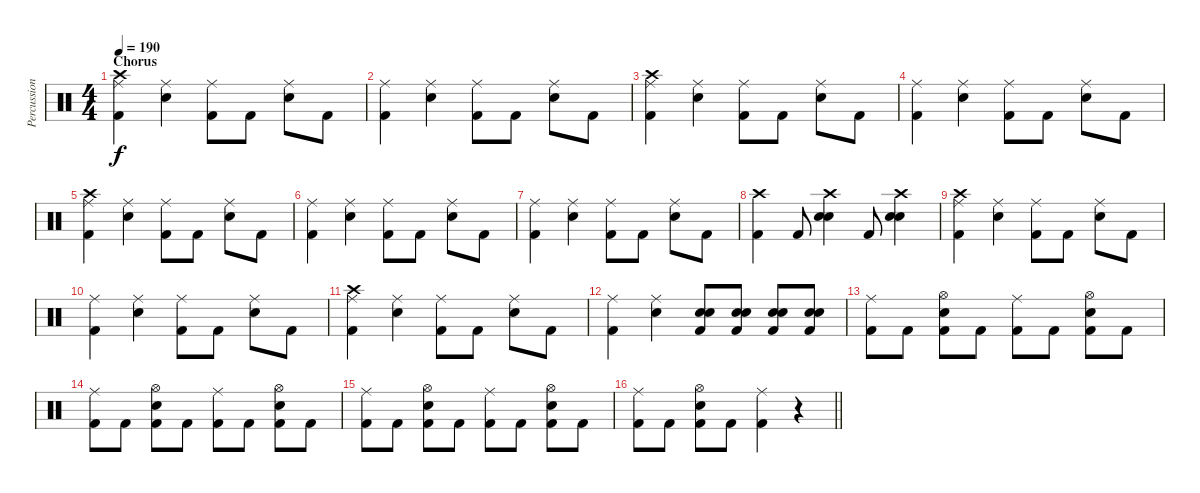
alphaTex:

\track ("Percussion" "Percussion") {instrument percussion}
\staff {score}
\articulation defaults
\ts (4 4)
\section ("" "Chorus")
\tempo 190
\clef neutral
\ks c
("Ride (middle)" "Kick (hit) 2" "Crash high (hit)").4{dy f} ("Ride (middle)" "Snare (hit) 2").4 ("Ride (middle)" "Kick (hit) 2").8 "Kick (hit) 2".8 ("Ride (middle)" "Snare (hit) 2").8 "Kick (hit) 2".8 |
("Ride (middle)" "Kick (hit) 2").4 ("Ride (middle)" "Snare (hit) 2").4 ("Ride (middle)" "Kick (hit) 2").8 "Kick (hit) 2".8 ("Ride (middle)" "Snare (hit) 2").8 "Kick (hit) 2".8 |
("Ride (middle)" "Kick (hit) 2" "Crash high (hit)").4 ("Ride (middle)" "Snare (hit) 2").4 ("Ride (middle)" "Kick (hit) 2").8 "Kick (hit) 2".8 ("Ride (middle)" "Snare (hit) 2").8 "Kick (hit) 2".8 |
("Ride (middle)" "Kick (hit) 2").4 ("Ride (middle)" "Snare (hit) 2").4 ("Ride (middle)" "Kick (hit) 2").8 "Kick (hit) 2".8 ("Ride (middle)" "Snare (hit) 2").8 "Kick (hit) 2".8 |
("Ride (middle)" "Kick (hit) 2" "Crash high (hit)").4 ("Ride (middle)" "Snare (hit) 2").4 ("Ride (middle)" "Kick (hit) 2").8 "Kick (hit) 2".8 ("Ride (middle)" "Snare (hit) 2").8 "Kick (hit) 2".8 |
("Ride (middle)" "Kick (hit) 2").4 ("Ride (middle)" "Snare (hit) 2").4 ("Ride (middle)" "Kick (hit) 2").8 "Kick (hit) 2".8 ("Ride (middle)" "Snare (hit) 2").8 "Kick (hit) 2".8 |
("Ride (middle)" "Kick (hit) 2").4 ("Ride (middle)" "Snare (hit) 2").4 ("Ride (middle)" "Kick (hit) 2").8 "Kick (hit) 2".8 ("Ride (middle)" "Snare (hit) 2").8 "Kick (hit) 2".8 |
("Kick (hit) 2" "Crash high (hit)").4 "Kick (hit) 2".8 ("Electric Snare (hit)" "Snare (hit) 2" "Crash high (hit)").4 "Kick (hit) 2".8 ("Electric Snare (hit)" "Snare (hit) 2" "Crash high (hit)").4 |
("Ride (middle)" "Kick (hit) 2" "Crash high (hit)").4 ("Ride (middle)" "Snare (hit) 2").4 ("Ride (middle)" "Kick (hit) 2").8 "Kick (hit) 2".8 ("Ride (middle)" "Snare (hit) 2").8 "Kick (hit) 2".8 |
("Ride (middle)" "Kick (hit) 2").4 ("Ride (middle)" "Snare (hit) 2").4 ("Ride (middle)" "Kick (hit) 2").8 "Kick (hit) 2".8 ("Ride (middle)" "Snare (hit) 2").8 "Kick (hit) 2".8 |
("Ride (middle)" "Kick (hit) 2" "Crash high (hit)").4 ("Ride (middle)" "Snare (hit) 2").4 ("Ride (middle)" "Kick (hit) 2").8 "Kick (hit) 2".8 ("Ride (middle)" "Snare (hit) 2").8 "Kick (hit) 2".8 |
("Ride (middle)" "Kick (hit) 2").4 ("Ride (middle)" "Snare (hit) 2").4 ("Electric Snare (hit)" "Snare (hit) 2" "Kick (hit) 2").8 ("Electric Snare (hit)" "Snare (hit) 2" "Kick (hit) 2").8 ("Electric Snare (hit)" "Snare (hit) 2" "Kick (hit) 2").8 ("Electric Snare (hit)" "Snare (hit) 2" "Kick (hit) 2").8 |
("Ride (middle)" "Kick (hit) 2").8 "Kick (hit) 2".8 ("Hi-Hat (open)" "Snare (hit) 2" "Kick (hit) 2").8 "Kick (hit) 2".8 ("Ride (middle)" "Kick (hit) 2").8 "Kick (hit) 2".8 ("Hi-Hat (open)" "Snare (hit) 2" "Kick (hit) 2").8 "Kick (hit) 2".8 |
("Ride (middle)" "Kick (hit) 2").8 "Kick (hit) 2".8 ("Hi-Hat (open)" "Snare (hit) 2" "Kick (hit) 2").8 "Kick (hit) 2".8 ("Ride (middle)" "Kick (hit) 2").8 "Kick (hit) 2".8 ("Hi-Hat (open)" "Snare (hit) 2" "Kick (hit) 2").8 "Kick (hit) 2".8 |
("Ride (middle)" "Kick (hit) 2").8 "Kick (hit) 2".8 ("Hi-Hat (open)" "Snare (hit) 2" "Kick (hit) 2").8 "Kick (hit) 2".8 ("Ride (middle)" "Kick (hit) 2").8 "Kick (hit) 2".8 ("Hi-Hat (open)" "Snare (hit) 2" "Kick (hit) 2").8 "Kick (hit) 2".8 |
\barLineRight lightlight
("Ride (middle)" "Kick (hit) 2").8 "Kick (hit) 2".8 ("Hi-Hat (open)" "Snare (hit) 2" "Kick (hit) 2").8 "Kick (hit) 2".8 ("Ride (middle)" "Kick (hit) 2").4 r.4
